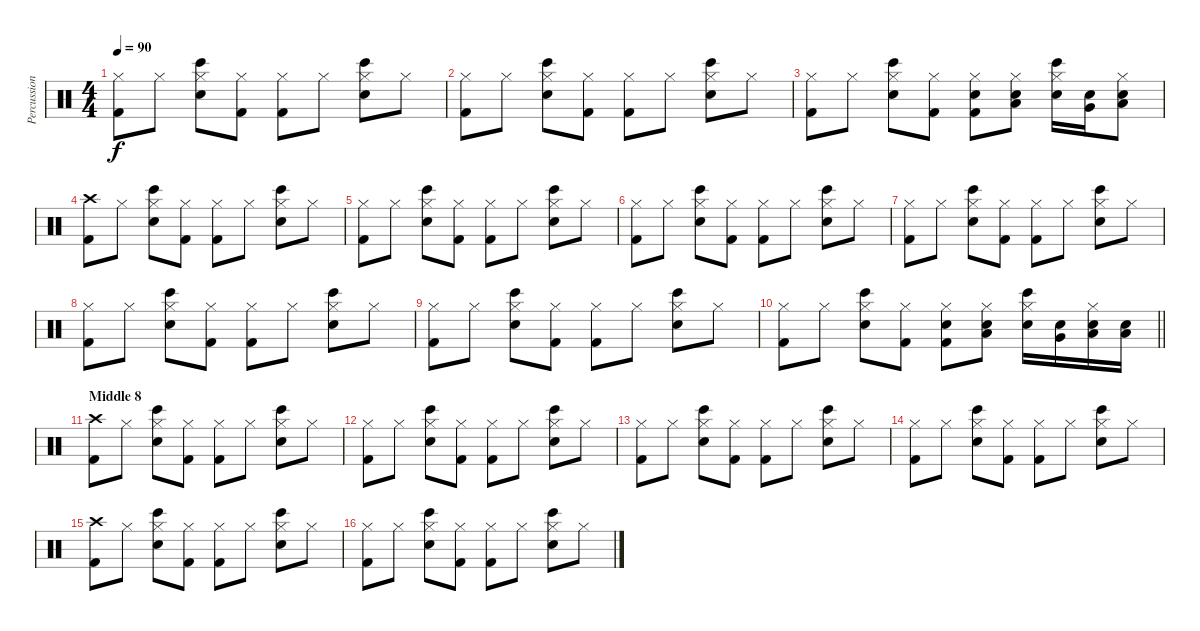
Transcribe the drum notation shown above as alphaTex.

\track ("Percussion" "Percussion") {instrument percussion}
\staff {score}
\articulation defaults
\ts (4 4)
\tempo 90
\clef neutral
\ks c
("Hi-Hat (closed)" "Kick (hit) 2").8{dy f} "Hi-Hat (closed)".8 ("Hi-Hat (closed)" "Bongo High (hit)" "Snare (hit) 2").8 ("Hi-Hat (closed)" "Kick (hit) 2").8 ("Hi-Hat (closed)" "Kick (hit) 2").8 "Hi-Hat (closed)".8 ("Hi-Hat (closed)" "Bongo High (hit)" "Snare (hit) 2").8 "Hi-Hat (closed)".8 |
("Hi-Hat (closed)" "Kick (hit) 2").8 "Hi-Hat (closed)".8 ("Hi-Hat (closed)" "Bongo High (hit)" "Snare (hit) 2").8 ("Hi-Hat (closed)" "Kick (hit) 2").8 ("Hi-Hat (closed)" "Kick (hit) 2").8 "Hi-Hat (closed)".8 ("Hi-Hat (closed)" "Bongo High (hit)" "Snare (hit) 2").8 "Hi-Hat (closed)".8 |
("Hi-Hat (closed)" "Kick (hit) 2").8 "Hi-Hat (closed)".8 ("Hi-Hat (closed)" "Bongo High (hit)" "Snare (hit) 2").8 ("Hi-Hat (closed)" "Kick (hit) 2").8 ("Hi-Hat (closed)" "Electric Snare (hit)" "Kick (hit) 2").8 ("Hi-Hat (closed)" "Low Tom (hit)" "Electric Snare (hit)").8 ("Hi-Hat (closed)" "Bongo High (hit)" "Snare (hit) 2").16 ("Very Low Tom (hit)" "Electric Snare (hit)").16 ("Hi-Hat (closed)" "Low Tom (hit)" "Snare (hit) 2").8 |
("Crash high (hit)" "Kick (hit) 2").8 "Hi-Hat (closed)".8 ("Hi-Hat (closed)" "Bongo High (hit)" "Snare (hit) 2").8 ("Hi-Hat (closed)" "Kick (hit) 2").8 ("Hi-Hat (closed)" "Kick (hit) 2").8 "Hi-Hat (closed)".8 ("Hi-Hat (closed)" "Bongo High (hit)" "Snare (hit) 2").8 "Hi-Hat (closed)".8 |
("Hi-Hat (closed)" "Kick (hit) 2").8 "Hi-Hat (closed)".8 ("Hi-Hat (closed)" "Bongo High (hit)" "Snare (hit) 2").8 ("Hi-Hat (closed)" "Kick (hit) 2").8 ("Hi-Hat (closed)" "Kick (hit) 2").8 "Hi-Hat (closed)".8 ("Hi-Hat (closed)" "Bongo High (hit)" "Snare (hit) 2").8 "Hi-Hat (closed)".8 |
("Hi-Hat (closed)" "Kick (hit) 2").8 "Hi-Hat (closed)".8 ("Hi-Hat (closed)" "Bongo High (hit)" "Snare (hit) 2").8 ("Hi-Hat (closed)" "Kick (hit) 2").8 ("Hi-Hat (closed)" "Kick (hit) 2").8 "Hi-Hat (closed)".8 ("Hi-Hat (closed)" "Bongo High (hit)" "Snare (hit) 2").8 "Hi-Hat (closed)".8 |
("Hi-Hat (closed)" "Kick (hit) 2").8 "Hi-Hat (closed)".8 ("Hi-Hat (closed)" "Bongo High (hit)" "Snare (hit) 2").8 ("Hi-Hat (closed)" "Kick (hit) 2").8 ("Hi-Hat (closed)" "Kick (hit) 2").8 "Hi-Hat (closed)".8 ("Hi-Hat (closed)" "Bongo High (hit)" "Snare (hit) 2").8 "Hi-Hat (closed)".8 |
("Hi-Hat (closed)" "Kick (hit) 2").8 "Hi-Hat (closed)".8 ("Hi-Hat (closed)" "Bongo High (hit)" "Snare (hit) 2").8 ("Hi-Hat (closed)" "Kick (hit) 2").8 ("Hi-Hat (closed)" "Kick (hit) 2").8 "Hi-Hat (closed)".8 ("Hi-Hat (closed)" "Bongo High (hit)" "Snare (hit) 2").8 "Hi-Hat (closed)".8 |
("Hi-Hat (closed)" "Kick (hit) 2").8 "Hi-Hat (closed)".8 ("Hi-Hat (closed)" "Bongo High (hit)" "Snare (hit) 2").8 ("Hi-Hat (closed)" "Kick (hit) 2").8 ("Hi-Hat (closed)" "Kick (hit) 2").8 "Hi-Hat (closed)".8 ("Hi-Hat (closed)" "Bongo High (hit)" "Snare (hit) 2").8 "Hi-Hat (closed)".8 |
\barLineRight lightlight
("Hi-Hat (closed)" "Kick (hit) 2").8 "Hi-Hat (closed)".8 ("Hi-Hat (closed)" "Bongo High (hit)" "Snare (hit) 2").8 ("Hi-Hat (closed)" "Kick (hit) 2").8 ("Hi-Hat (closed)" "Electric Snare (hit)" "Kick (hit) 2").8 ("Hi-Hat (closed)" "Low Tom (hit)" "Electric Snare (hit)").8 ("Hi-Hat (closed)" "Bongo High (hit)" "Snare (hit) 2").16 ("Very Low Tom (hit)" "Electric Snare (hit)").16 ("Hi-Hat (closed)" "Low Tom (hit)" "Snare (hit) 2").16 ("Low Floor Tom (hit)" "Electric Snare (hit)").16 |
\section ("" "Middle 8")
("Crash high (hit)" "Kick (hit) 2").8 "Hi-Hat (closed)".8 ("Hi-Hat (closed)" "Bongo High (hit)" "Snare (hit) 2").8 ("Hi-Hat (closed)" "Kick (hit) 2").8 ("Hi-Hat (closed)" "Kick (hit) 2").8 "Hi-Hat (closed)".8 ("Hi-Hat (closed)" "Bongo High (hit)" "Snare (hit) 2").8 "Hi-Hat (closed)".8 |
("Hi-Hat (closed)" "Kick (hit) 2").8 "Hi-Hat (closed)".8 ("Hi-Hat (closed)" "Bongo High (hit)" "Snare (hit) 2").8 ("Hi-Hat (closed)" "Kick (hit) 2").8 ("Hi-Hat (closed)" "Kick (hit) 2").8 "Hi-Hat (closed)".8 ("Hi-Hat (closed)" "Bongo High (hit)" "Snare (hit) 2").8 "Hi-Hat (closed)".8 |
("Hi-Hat (closed)" "Kick (hit) 2").8 "Hi-Hat (closed)".8 ("Hi-Hat (closed)" "Bongo High (hit)" "Snare (hit) 2").8 ("Hi-Hat (closed)" "Kick (hit) 2").8 ("Hi-Hat (closed)" "Kick (hit) 2").8 "Hi-Hat (closed)".8 ("Hi-Hat (closed)" "Bongo High (hit)" "Snare (hit) 2").8 "Hi-Hat (closed)".8 |
("Hi-Hat (closed)" "Kick (hit) 2").8 "Hi-Hat (closed)".8 ("Hi-Hat (closed)" "Bongo High (hit)" "Snare (hit) 2").8 ("Hi-Hat (closed)" "Kick (hit) 2").8 ("Hi-Hat (closed)" "Kick (hit) 2").8 "Hi-Hat (closed)".8 ("Hi-Hat (closed)" "Bongo High (hit)" "Snare (hit) 2").8 "Hi-Hat (closed)".8 |
("Crash high (hit)" "Kick (hit) 2").8 "Hi-Hat (closed)".8 ("Hi-Hat (closed)" "Bongo High (hit)" "Snare (hit) 2").8 ("Hi-Hat (closed)" "Kick (hit) 2").8 ("Hi-Hat (closed)" "Kick (hit) 2").8 "Hi-Hat (closed)".8 ("Hi-Hat (closed)" "Bongo High (hit)" "Snare (hit) 2").8 "Hi-Hat (closed)".8 |
("Hi-Hat (closed)" "Kick (hit) 2").8 "Hi-Hat (closed)".8 ("Hi-Hat (closed)" "Bongo High (hit)" "Snare (hit) 2").8 ("Hi-Hat (closed)" "Kick (hit) 2").8 ("Hi-Hat (closed)" "Kick (hit) 2").8 "Hi-Hat (closed)".8 ("Hi-Hat (closed)" "Bongo High (hit)" "Snare (hit) 2").8 "Hi-Hat (closed)".8
